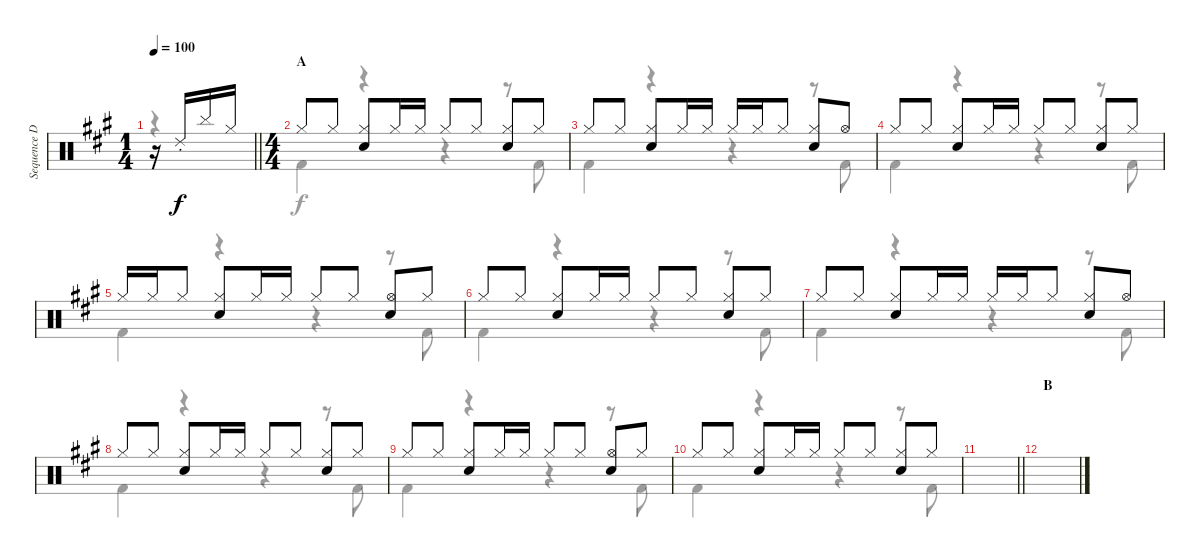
\track ("Sequence Drums" "Sequence D") {instrument percussion}
\staff {score}
\articulation defaults
\voice
\ts (1 4)
\tempo 100
\clef neutral
\barLineRight lightlight
\ks a
r.16{dy f} "Ride (choke) 2".16{volume 10} "Cymbal (hit)".16 "Hi-Hat (closed)".16 |
\ts (4 4)
\section ("" "A")
"Hi-Hat (closed)".8{volume 15} "Hi-Hat (closed)".8 ("Hi-Hat (closed)" "Hand Clap (hit)").8 "Hi-Hat (closed)".16 "Hi-Hat (closed)".16 "Hi-Hat (closed)".8 "Hi-Hat (closed)".8 ("Hi-Hat (closed)" "Hand Clap (hit)").8 "Hi-Hat (closed)".8 |
"Hi-Hat (closed)".8 "Hi-Hat (closed)".8 ("Hi-Hat (closed)" "Hand Clap (hit)").8 "Hi-Hat (closed)".16 "Hi-Hat (closed)".16 "Hi-Hat (closed)".16 "Hi-Hat (closed)".16 "Hi-Hat (closed)".8 ("Hi-Hat (closed)" "Hand Clap (hit)").8 "Hi-Hat (open)".8 |
"Hi-Hat (closed)".8 "Hi-Hat (closed)".8 ("Hi-Hat (closed)" "Hand Clap (hit)").8 "Hi-Hat (closed)".16 "Hi-Hat (closed)".16 "Hi-Hat (closed)".8 "Hi-Hat (closed)".8 ("Hi-Hat (closed)" "Hand Clap (hit)").8 "Hi-Hat (closed)".8 |
"Hi-Hat (closed)".16 "Hi-Hat (closed)".16 "Hi-Hat (closed)".8 ("Hi-Hat (closed)" "Hand Clap (hit)").8 "Hi-Hat (closed)".16 "Hi-Hat (closed)".16 "Hi-Hat (closed)".8 "Hi-Hat (closed)".8 ("Hi-Hat (open)" "Hand Clap (hit)").8 "Hi-Hat (closed)".8 |
"Hi-Hat (closed)".8 "Hi-Hat (closed)".8 ("Hi-Hat (closed)" "Hand Clap (hit)").8 "Hi-Hat (closed)".16 "Hi-Hat (closed)".16 "Hi-Hat (closed)".8 "Hi-Hat (closed)".8 ("Hi-Hat (closed)" "Hand Clap (hit)").8 "Hi-Hat (closed)".8 |
"Hi-Hat (closed)".8 "Hi-Hat (closed)".8 ("Hi-Hat (closed)" "Hand Clap (hit)").8 "Hi-Hat (closed)".16 "Hi-Hat (closed)".16 "Hi-Hat (closed)".16 "Hi-Hat (closed)".16 "Hi-Hat (closed)".8 ("Hi-Hat (closed)" "Hand Clap (hit)").8 "Hi-Hat (open)".8 |
"Hi-Hat (closed)".8 "Hi-Hat (closed)".8 ("Hi-Hat (closed)" "Hand Clap (hit)").8 "Hi-Hat (closed)".16 "Hi-Hat (closed)".16 "Hi-Hat (closed)".8 "Hi-Hat (closed)".8 ("Hi-Hat (closed)" "Hand Clap (hit)").8 "Hi-Hat (closed)".8 |
"Hi-Hat (closed)".8 "Hi-Hat (closed)".8 ("Hi-Hat (closed)" "Hand Clap (hit)").8 "Hi-Hat (closed)".16 "Hi-Hat (closed)".16 "Hi-Hat (closed)".8 "Hi-Hat (closed)".8 ("Hi-Hat (open)" "Hand Clap (hit)").8 "Hi-Hat (closed)".8 |
"Hi-Hat (closed)".8 "Hi-Hat (closed)".8 ("Hi-Hat (closed)" "Hand Clap (hit)").8 "Hi-Hat (closed)".16 "Hi-Hat (closed)".16 "Hi-Hat (closed)".8 "Hi-Hat (closed)".8 ("Hi-Hat (closed)" "Hand Clap (hit)").8 "Hi-Hat (closed)".8 |
\barLineRight lightlight
|
\section ("" "B")
|
|
|
|
\voice
\clef neutral
\ottava regular
\simile none
\barLineRight lightlight
\ks a
r.4{dy f} |
"Kick (hit) 2".4 r.4 r.4 r.8 "Kick (hit) 2".8 |
"Kick (hit) 2".4 r.4 r.4 r.8 "Kick (hit) 2".8 |
"Kick (hit) 2".4 r.4 r.4 r.8 "Kick (hit) 2".8 |
"Kick (hit) 2".4 r.4 r.4 r.8 "Kick (hit) 2".8 |
"Kick (hit) 2".4 r.4 r.4 r.8 "Kick (hit) 2".8 |
"Kick (hit) 2".4 r.4 r.4 r.8 "Kick (hit) 2".8 |
"Kick (hit) 2".4 r.4 r.4 r.8 "Kick (hit) 2".8 |
"Kick (hit) 2".4 r.4 r.4 r.8 "Kick (hit) 2".8 |
"Kick (hit) 2".4 r.4 r.4 r.8 "Kick (hit) 2".8 |
\barLineRight lightlight
|
|
|
|
|
